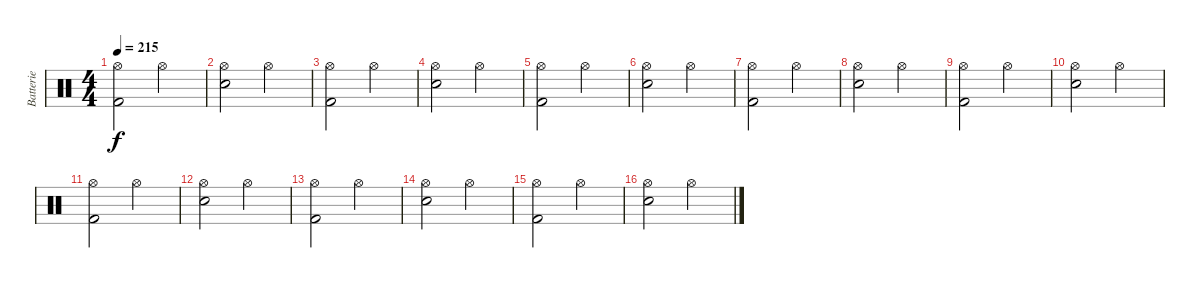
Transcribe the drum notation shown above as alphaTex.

\track ("Batterie" "Batterie") {instrument percussion}
\staff {score}
\articulation defaults
\ts (4 4)
\tempo 215
\clef neutral
\ks c
("Hi-Hat (open)" "Kick (hit) 2").2{dy f} "Hi-Hat (open)".2 |
("Hi-Hat (open)" "Electric Snare (hit)").2 "Hi-Hat (open)".2 |
("Hi-Hat (open)" "Kick (hit) 2").2 "Hi-Hat (open)".2 |
("Hi-Hat (open)" "Electric Snare (hit)").2 "Hi-Hat (open)".2 |
("Hi-Hat (open)" "Kick (hit) 2").2 "Hi-Hat (open)".2 |
("Hi-Hat (open)" "Electric Snare (hit)").2 "Hi-Hat (open)".2 |
("Hi-Hat (open)" "Kick (hit) 2").2 "Hi-Hat (open)".2 |
("Hi-Hat (open)" "Electric Snare (hit)").2 "Hi-Hat (open)".2 |
("Hi-Hat (open)" "Kick (hit) 2").2 "Hi-Hat (open)".2 |
("Hi-Hat (open)" "Electric Snare (hit)").2 "Hi-Hat (open)".2 |
("Hi-Hat (open)" "Kick (hit) 2").2 "Hi-Hat (open)".2 |
("Hi-Hat (open)" "Electric Snare (hit)").2 "Hi-Hat (open)".2 |
("Hi-Hat (open)" "Kick (hit) 2").2 "Hi-Hat (open)".2 |
("Hi-Hat (open)" "Electric Snare (hit)").2 "Hi-Hat (open)".2 |
("Hi-Hat (open)" "Kick (hit) 2").2 "Hi-Hat (open)".2 |
("Hi-Hat (open)" "Electric Snare (hit)").2 "Hi-Hat (open)".2
